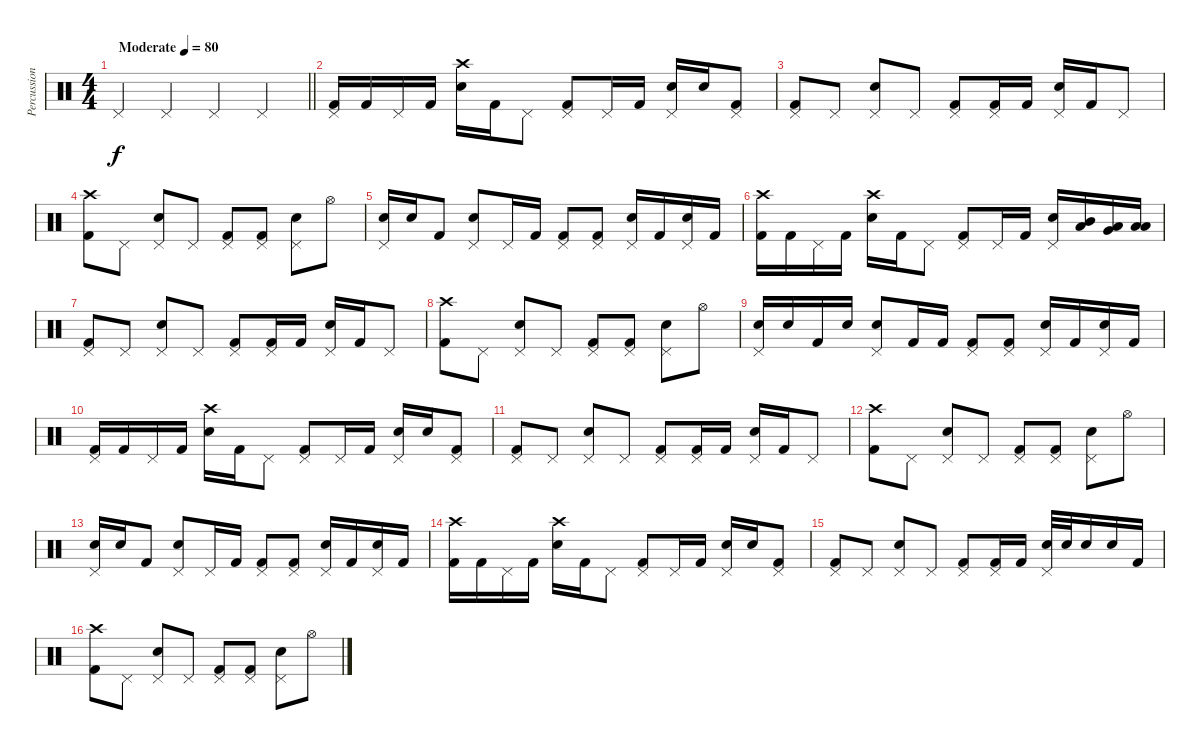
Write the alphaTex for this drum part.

\track ("Percussion" "Percussion") {instrument percussion}
\staff {score}
\articulation defaults
\ts (4 4)
\tempo (80 "Moderate")
\clef neutral
\barLineRight lightlight
\ks c "Pedal Hi-Hat (hit)".4{dy f} "Pedal Hi-Hat (hit)".4 "Pedal Hi-Hat (hit)".4 "Pedal Hi-Hat (hit)".4
|
("Pedal Hi-Hat (hit)" "Kick (hit) 2").16 "Kick (hit) 2".16 "Pedal Hi-Hat (hit)".16 "Kick (hit) 2".16 ("Crash high (hit)" "Electric Snare (hit)").16 "Kick (hit) 2".16 "Pedal Hi-Hat (hit)".8 ("Pedal Hi-Hat (hit)" "Kick (hit) 2").8 "Pedal Hi-Hat (hit)".16 "Kick (hit) 2".16 ("Pedal Hi-Hat (hit)" "Electric Snare (hit)").16 "Electric Snare (hit)".16 ("Pedal Hi-Hat (hit)" "Kick (hit) 2").8 |
("Pedal Hi-Hat (hit)" "Kick (hit) 2").8 "Pedal Hi-Hat (hit)".8 ("Pedal Hi-Hat (hit)" "Electric Snare (hit)").8 "Pedal Hi-Hat (hit)".8 ("Pedal Hi-Hat (hit)" "Kick (hit) 2").8 ("Pedal Hi-Hat (hit)" "Kick (hit) 2").16 "Kick (hit) 2".16 ("Pedal Hi-Hat (hit)" "Electric Snare (hit)").16 "Kick (hit) 2".16 "Pedal Hi-Hat (hit)".8 |
("Crash high (hit)" "Kick (hit) 2").8 "Pedal Hi-Hat (hit)".8 ("Pedal Hi-Hat (hit)" "Electric Snare (hit)").8 "Pedal Hi-Hat (hit)".8 ("Pedal Hi-Hat (hit)" "Kick (hit) 2").8 ("Pedal Hi-Hat (hit)" "Kick (hit) 2").8 ("Pedal Hi-Hat (hit)" "Electric Snare (hit)").8 "Hi-Hat (open)".8 |
("Pedal Hi-Hat (hit)" "Electric Snare (hit)").16 "Electric Snare (hit)".16 "Kick (hit) 2".8 ("Pedal Hi-Hat (hit)" "Electric Snare (hit)").8 "Pedal Hi-Hat (hit)".16 "Kick (hit) 2".16 ("Pedal Hi-Hat (hit)" "Kick (hit) 2").8 ("Pedal Hi-Hat (hit)" "Kick (hit) 2").8 ("Pedal Hi-Hat (hit)" "Electric Snare (hit)").16 "Kick (hit) 2".16 ("Pedal Hi-Hat (hit)" "Electric Snare (hit)").16 "Kick (hit) 2".16 |
("Crash high (hit)" "Kick (hit) 2").16 "Kick (hit) 2".16 "Pedal Hi-Hat (hit)".16 "Kick (hit) 2".16 ("Crash high (hit)" "Electric Snare (hit)").16 "Kick (hit) 2".16 "Pedal Hi-Hat (hit)".8 ("Pedal Hi-Hat (hit)" "Kick (hit) 2").8 "Pedal Hi-Hat (hit)".16 "Kick (hit) 2".16 ("Pedal Hi-Hat (hit)" "Electric Snare (hit)").16 ("Mid Tom (hit)" "Low Tom (hit)").16 ("Low Tom (hit)" "Very Low Tom (hit)").16 ("Low Tom (hit)" "Low Floor Tom (hit)").16 |
("Pedal Hi-Hat (hit)" "Kick (hit) 2").8 "Pedal Hi-Hat (hit)".8 ("Pedal Hi-Hat (hit)" "Electric Snare (hit)").8 "Pedal Hi-Hat (hit)".8 ("Pedal Hi-Hat (hit)" "Kick (hit) 2").8 ("Pedal Hi-Hat (hit)" "Kick (hit) 2").16 "Kick (hit) 2".16 ("Pedal Hi-Hat (hit)" "Electric Snare (hit)").16 "Kick (hit) 2".16 "Pedal Hi-Hat (hit)".8 |
("Crash high (hit)" "Kick (hit) 2").8 "Pedal Hi-Hat (hit)".8 ("Pedal Hi-Hat (hit)" "Electric Snare (hit)").8 "Pedal Hi-Hat (hit)".8 ("Pedal Hi-Hat (hit)" "Kick (hit) 2").8 ("Pedal Hi-Hat (hit)" "Kick (hit) 2").8 ("Pedal Hi-Hat (hit)" "Electric Snare (hit)").8 "Hi-Hat (open)".8 |
("Pedal Hi-Hat (hit)" "Electric Snare (hit)").16 "Electric Snare (hit)".16 "Kick (hit) 2".16 "Electric Snare (hit)".16 ("Pedal Hi-Hat (hit)" "Electric Snare (hit)").8 "Kick (hit) 2".16 "Kick (hit) 2".16 ("Pedal Hi-Hat (hit)" "Kick (hit) 2").8 ("Pedal Hi-Hat (hit)" "Kick (hit) 2").8 ("Pedal Hi-Hat (hit)" "Electric Snare (hit)").16 "Kick (hit) 2".16 ("Pedal Hi-Hat (hit)" "Electric Snare (hit)").16 "Kick (hit) 2".16 |
("Pedal Hi-Hat (hit)" "Kick (hit) 2").16 "Kick (hit) 2".16 "Pedal Hi-Hat (hit)".16 "Kick (hit) 2".16 ("Crash high (hit)" "Electric Snare (hit)").16 "Kick (hit) 2".16 "Pedal Hi-Hat (hit)".8 ("Pedal Hi-Hat (hit)" "Kick (hit) 2").8 "Pedal Hi-Hat (hit)".16 "Kick (hit) 2".16 ("Pedal Hi-Hat (hit)" "Electric Snare (hit)").16 "Electric Snare (hit)".16 ("Pedal Hi-Hat (hit)" "Kick (hit) 2").8 |
("Pedal Hi-Hat (hit)" "Kick (hit) 2").8 "Pedal Hi-Hat (hit)".8 ("Pedal Hi-Hat (hit)" "Electric Snare (hit)").8 "Pedal Hi-Hat (hit)".8 ("Pedal Hi-Hat (hit)" "Kick (hit) 2").8 ("Pedal Hi-Hat (hit)" "Kick (hit) 2").16 "Kick (hit) 2".16 ("Pedal Hi-Hat (hit)" "Electric Snare (hit)").16 "Kick (hit) 2".16 "Pedal Hi-Hat (hit)".8 |
("Crash high (hit)" "Kick (hit) 2").8 "Pedal Hi-Hat (hit)".8 ("Pedal Hi-Hat (hit)" "Electric Snare (hit)").8 "Pedal Hi-Hat (hit)".8 ("Pedal Hi-Hat (hit)" "Kick (hit) 2").8 ("Pedal Hi-Hat (hit)" "Kick (hit) 2").8 ("Pedal Hi-Hat (hit)" "Electric Snare (hit)").8 "Hi-Hat (open)".8 |
("Pedal Hi-Hat (hit)" "Electric Snare (hit)").16 "Electric Snare (hit)".16 "Kick (hit) 2".8 ("Pedal Hi-Hat (hit)" "Electric Snare (hit)").8 "Pedal Hi-Hat (hit)".16 "Kick (hit) 2".16 ("Pedal Hi-Hat (hit)" "Kick (hit) 2").8 ("Pedal Hi-Hat (hit)" "Kick (hit) 2").8 ("Pedal Hi-Hat (hit)" "Electric Snare (hit)").16 "Kick (hit) 2".16 ("Pedal Hi-Hat (hit)" "Electric Snare (hit)").16 "Kick (hit) 2".16 |
("Crash high (hit)" "Kick (hit) 2").16 "Kick (hit) 2".16 "Pedal Hi-Hat (hit)".16 "Kick (hit) 2".16 ("Crash high (hit)" "Electric Snare (hit)").16 "Kick (hit) 2".16 "Pedal Hi-Hat (hit)".8 ("Pedal Hi-Hat (hit)" "Kick (hit) 2").8 "Pedal Hi-Hat (hit)".16 "Kick (hit) 2".16 ("Pedal Hi-Hat (hit)" "Electric Snare (hit)").16 "Electric Snare (hit)".16 ("Pedal Hi-Hat (hit)" "Kick (hit) 2").8 |
("Pedal Hi-Hat (hit)" "Kick (hit) 2").8 "Pedal Hi-Hat (hit)".8 ("Pedal Hi-Hat (hit)" "Electric Snare (hit)").8 "Pedal Hi-Hat (hit)".8 ("Pedal Hi-Hat (hit)" "Kick (hit) 2").8 ("Pedal Hi-Hat (hit)" "Kick (hit) 2").16 "Kick (hit) 2".16 ("Pedal Hi-Hat (hit)" "Electric Snare (hit)").32 "Electric Snare (hit)".32 "Electric Snare (hit)".16 "Electric Snare (hit)".16 "Kick (hit) 2".16 |
("Crash high (hit)" "Kick (hit) 2").8 "Pedal Hi-Hat (hit)".8 ("Pedal Hi-Hat (hit)" "Electric Snare (hit)").8 "Pedal Hi-Hat (hit)".8 ("Pedal Hi-Hat (hit)" "Kick (hit) 2").8 ("Pedal Hi-Hat (hit)" "Kick (hit) 2").8 ("Pedal Hi-Hat (hit)" "Electric Snare (hit)").8 "Hi-Hat (open)".8
